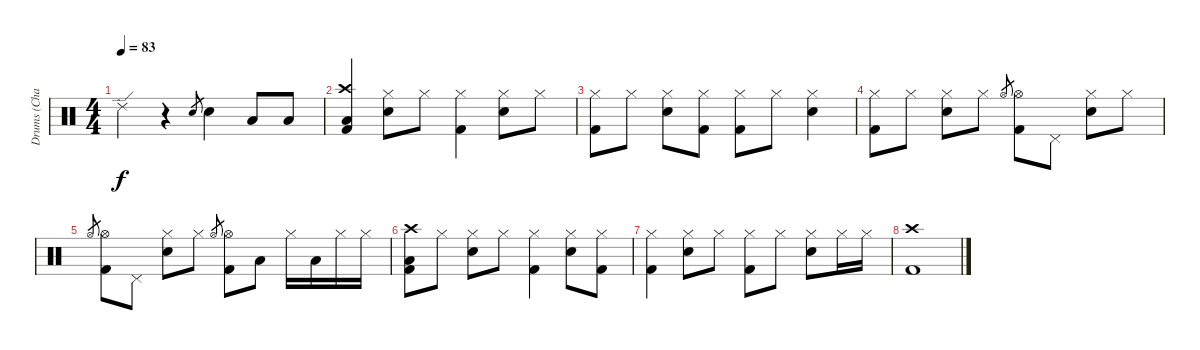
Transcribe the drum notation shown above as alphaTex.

\track ("Drums (Charlie)" "Drums (Cha") {instrument percussion}
\staff {score}
\articulation defaults
\ts (4 4)
\tempo 83
\clef neutral
\ks c "Ride (edge) 2".4{dy f}
r.4 "Snare (hit) 2".8{gr} "Snare (hit) 2".4 "Low Floor Tom (hit)".8 "Low Tom (hit)".8 |
("Crash high (hit)" "Low Tom (hit)" "Kick (hit) 2").4 ("Hi-Hat (closed)" "Snare (hit) 2").8 "Hi-Hat (closed)".8 ("Hi-Hat (closed)" "Kick (hit) 2").4 ("Hi-Hat (closed)" "Snare (hit) 2").8 "Hi-Hat (closed)".8 |
("Hi-Hat (closed)" "Kick (hit) 2").8 "Hi-Hat (closed)".8 ("Hi-Hat (closed)" "Snare (hit) 2").8 ("Hi-Hat (closed)" "Kick (hit) 2").8 ("Hi-Hat (closed)" "Kick (hit) 2").8 "Hi-Hat (closed)".8 ("Hi-Hat (closed)" "Snare (hit) 2").4 |
("Hi-Hat (closed)" "Kick (hit) 2").8 "Hi-Hat (closed)".8 ("Hi-Hat (closed)" "Snare (hit) 2").8 "Hi-Hat (closed)".8 "Hi-Hat (open)".8{gr} ("Hi-Hat (open)" "Kick (hit) 2").8 "Pedal Hi-Hat (hit)".8 ("Hi-Hat (closed)" "Snare (hit) 2").8 "Hi-Hat (closed)".8 |
"Hi-Hat (open)".8{gr} ("Hi-Hat (open)" "Kick (hit) 2").8 "Pedal Hi-Hat (hit)".8 ("Hi-Hat (closed)" "Snare (hit) 2").8 "Hi-Hat (closed)".8 "Hi-Hat (open)".8{gr} ("Hi-Hat (open)" "Kick (hit) 2").8 "Low Tom (hit)".8 "Hi-Hat (closed)".16 "Low Floor Tom (hit)".16 "Hi-Hat (closed)".16 "Hi-Hat (closed)".16 |
("Crash high (hit)" "Low Tom (hit)" "Kick (hit) 2").8 "Hi-Hat (closed)".8 ("Hi-Hat (closed)" "Snare (hit) 2").8 "Hi-Hat (closed)".8 ("Hi-Hat (closed)" "Kick (hit) 2").4 ("Hi-Hat (closed)" "Snare (hit) 2").8 ("Hi-Hat (closed)" "Kick (hit) 2").8 |
("Hi-Hat (closed)" "Kick (hit) 2").4 ("Hi-Hat (closed)" "Snare (hit) 2").8 "Hi-Hat (closed)".8 ("Hi-Hat (closed)" "Kick (hit) 2").8 "Hi-Hat (closed)".8 ("Hi-Hat (closed)" "Snare (hit) 2").8 "Hi-Hat (closed)".16 "Hi-Hat (closed)".16 |
("Crash high (hit)" "Kick (hit) 2").1
